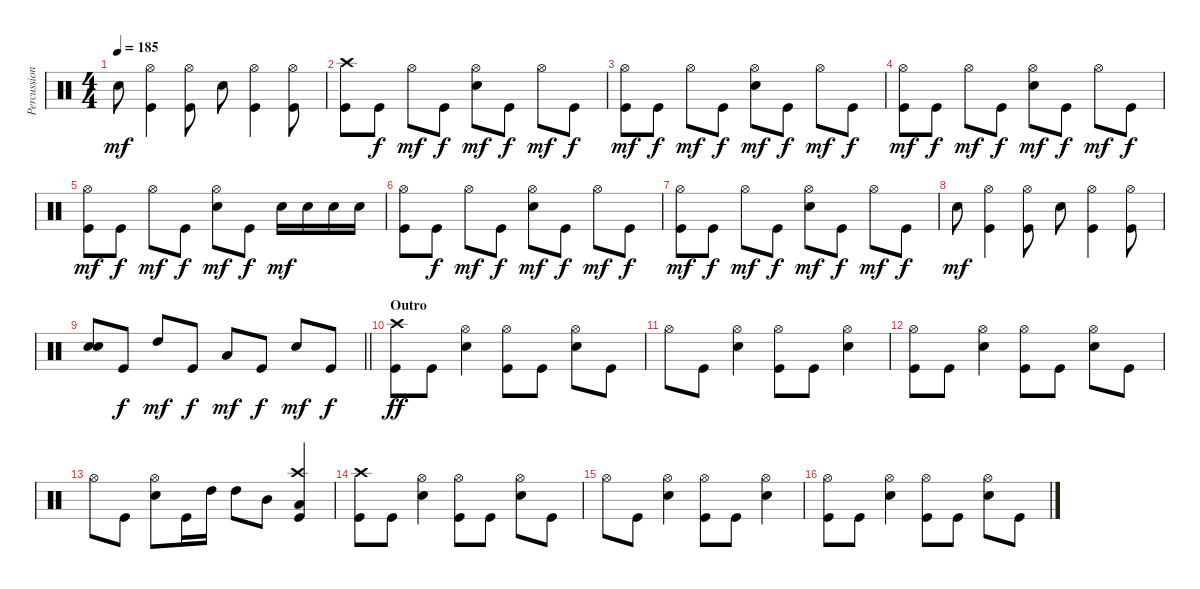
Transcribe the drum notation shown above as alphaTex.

\track ("Percussion" "Percussion") {instrument percussion}
\staff {score}
\articulation defaults
\ts (4 4)
\tempo 185
\clef neutral
\ks c "Snare (hit) 2".8{dy mf}
("Hi-Hat (open)" "Kick (hit)").4 ("Hi-Hat (open)" "Kick (hit)").8 "Snare (hit) 2".8 ("Kick (hit)" "Hi-Hat (open)").4 ("Kick (hit)" "Hi-Hat (open)").8 |
("Crash high (hit)" "Kick (hit)").8 "Kick (hit)".8{dy f} "Hi-Hat (open)".8{dy mf} "Kick (hit)".8{dy f} ("Snare (hit) 2" "Hi-Hat (open)").8{dy mf} "Kick (hit)".8{dy f} "Hi-Hat (open)".8{dy mf} "Kick (hit)".8{dy f} |
("Kick (hit)" "Hi-Hat (open)").8{dy mf} "Kick (hit)".8{dy f} "Hi-Hat (open)".8{dy mf} "Kick (hit)".8{dy f} ("Snare (hit) 2" "Hi-Hat (open)").8{dy mf} "Kick (hit)".8{dy f} "Hi-Hat (open)".8{dy mf} "Kick (hit)".8{dy f} |
("Hi-Hat (open)" "Kick (hit)").8{dy mf} "Kick (hit)".8{dy f} "Hi-Hat (open)".8{dy mf} "Kick (hit)".8{dy f} ("Snare (hit) 2" "Hi-Hat (open)").8{dy mf} "Kick (hit)".8{dy f} "Hi-Hat (open)".8{dy mf} "Kick (hit)".8{dy f} |
("Hi-Hat (open)" "Kick (hit)").8{dy mf} "Kick (hit)".8{dy f} "Hi-Hat (open)".8{dy mf} "Kick (hit)".8{dy f} ("Snare (hit) 2" "Hi-Hat (open)").8{dy mf} "Kick (hit)".8{dy f} "Snare (hit) 2".16{dy mf} "Snare (hit) 2".16 "Snare (hit) 2".16 "Snare (hit) 2".16 |
("Kick (hit)" "Hi-Hat (open)").8 "Kick (hit)".8{dy f} "Hi-Hat (open)".8{dy mf} "Kick (hit)".8{dy f} ("Snare (hit) 2" "Hi-Hat (open)").8{dy mf} "Kick (hit)".8{dy f} "Hi-Hat (open)".8{dy mf} "Kick (hit)".8{dy f} |
("Kick (hit)" "Hi-Hat (open)").8{dy mf} "Kick (hit)".8{dy f} "Hi-Hat (open)".8{dy mf} "Kick (hit)".8{dy f} ("Snare (hit) 2" "Hi-Hat (open)").8{dy mf} "Kick (hit)".8{dy f} "Hi-Hat (open)".8{dy mf} "Kick (hit)".8{dy f} |
"Snare (hit) 2".8{dy mf} ("Hi-Hat (open)" "Kick (hit)").4 ("Hi-Hat (open)" "Kick (hit)").8 "Snare (hit) 2".8 ("Kick (hit)" "Hi-Hat (open)").4 ("Kick (hit)" "Hi-Hat (open)").8 |
\barLineRight lightlight
("Snare (hit) 2" "Snare (hit) 2").8 "Kick (hit)".8{dy f} "High Tom (hit)".8{dy mf} "Kick (hit)".8{dy f} "Low Tom (hit)".8{dy mf} "Kick (hit)".8{dy f} "Snare (hit) 2".8{dy mf} "Kick (hit)".8{dy f} |
\section ("" "Outro")
("Kick (hit)" "Crash high (hit)").8{dy ff} "Kick (hit)".8 ("Snare (hit) 2" "Hi-Hat (open)").4 ("Hi-Hat (open)" "Kick (hit)").8 "Kick (hit)".8 ("Snare (hit) 2" "Hi-Hat (open)").8 "Kick (hit)".8 |
"Hi-Hat (open)".8 "Kick (hit)".8 ("Snare (hit) 2" "Hi-Hat (open)").4 ("Hi-Hat (open)" "Kick (hit)").8 "Kick (hit)".8 ("Snare (hit) 2" "Hi-Hat (open)").4 |
("Kick (hit)" "Hi-Hat (open)").8 "Kick (hit)".8 ("Snare (hit) 2" "Hi-Hat (open)").4 ("Hi-Hat (open)" "Kick (hit)").8 "Kick (hit)".8 ("Snare (hit) 2" "Hi-Hat (open)").8 "Kick (hit)".8 |
"Hi-Hat (open)".8 "Kick (hit)".8 ("Snare (hit) 2" "Hi-Hat (open)").8 "Kick (hit)".16 "High Tom (hit)".16 "High Tom (hit)".8 "Mid Tom (hit)".8 ("Crash high (hit)" "Low Tom (hit)" "Kick (hit)").4 |
("Kick (hit)" "Crash high (hit)").8 "Kick (hit)".8 ("Snare (hit) 2" "Hi-Hat (open)").4 ("Hi-Hat (open)" "Kick (hit)").8 "Kick (hit)".8 ("Snare (hit) 2" "Hi-Hat (open)").8 "Kick (hit)".8 |
"Hi-Hat (open)".8 "Kick (hit)".8 ("Snare (hit) 2" "Hi-Hat (open)").4 ("Hi-Hat (open)" "Kick (hit)").8 "Kick (hit)".8 ("Snare (hit) 2" "Hi-Hat (open)").4 |
("Kick (hit)" "Hi-Hat (open)").8 "Kick (hit)".8 ("Snare (hit) 2" "Hi-Hat (open)").4 ("Hi-Hat (open)" "Kick (hit)").8 "Kick (hit)".8 ("Snare (hit) 2" "Hi-Hat (open)").8 "Kick (hit)".8
